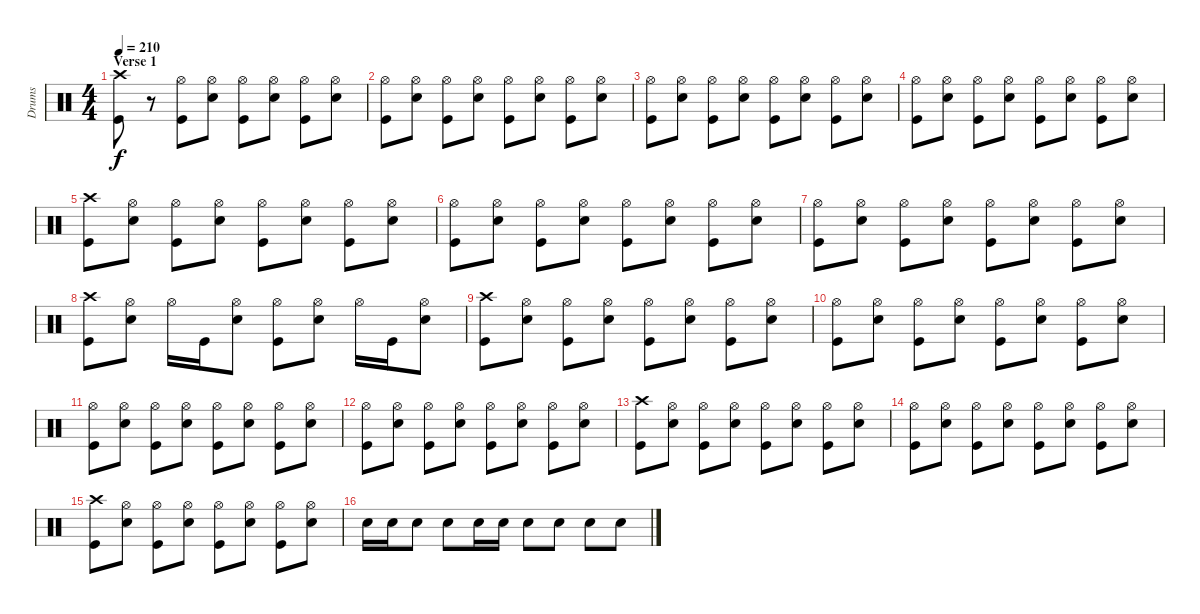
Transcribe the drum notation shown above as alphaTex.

\track ("Drums" "Drums") {instrument percussion}
\staff {score}
\articulation defaults
\ts (4 4)
\section ("" "Verse 1")
\tempo 210
\clef neutral
\ks c
("Crash high (hit)" "Kick (hit)").8{dy f} r.8 ("Hi-Hat (open)" "Kick (hit)").8 ("Hi-Hat (open)" "Snare (hit) 2").8 ("Hi-Hat (open)" "Kick (hit)").8 ("Hi-Hat (open)" "Snare (hit) 2").8 ("Hi-Hat (open)" "Kick (hit)").8 ("Hi-Hat (open)" "Snare (hit) 2").8 |
("Hi-Hat (open)" "Kick (hit)").8 ("Hi-Hat (open)" "Snare (hit) 2").8 ("Hi-Hat (open)" "Kick (hit)").8 ("Hi-Hat (open)" "Snare (hit) 2").8 ("Hi-Hat (open)" "Kick (hit)").8 ("Hi-Hat (open)" "Snare (hit) 2").8 ("Hi-Hat (open)" "Kick (hit)").8 ("Hi-Hat (open)" "Snare (hit) 2").8 |
("Hi-Hat (open)" "Kick (hit)").8 ("Hi-Hat (open)" "Snare (hit) 2").8 ("Hi-Hat (open)" "Kick (hit)").8 ("Hi-Hat (open)" "Snare (hit) 2").8 ("Hi-Hat (open)" "Kick (hit)").8 ("Hi-Hat (open)" "Snare (hit) 2").8 ("Hi-Hat (open)" "Kick (hit)").8 ("Hi-Hat (open)" "Snare (hit) 2").8 |
("Hi-Hat (open)" "Kick (hit)").8 ("Hi-Hat (open)" "Snare (hit) 2").8 ("Hi-Hat (open)" "Kick (hit)").8 ("Hi-Hat (open)" "Snare (hit) 2").8 ("Hi-Hat (open)" "Kick (hit)").8 ("Hi-Hat (open)" "Snare (hit) 2").8 ("Hi-Hat (open)" "Kick (hit)").8 ("Hi-Hat (open)" "Snare (hit) 2").8 |
("Crash high (hit)" "Kick (hit)").8 ("Hi-Hat (open)" "Snare (hit) 2").8 ("Hi-Hat (open)" "Kick (hit)").8 ("Hi-Hat (open)" "Snare (hit) 2").8 ("Hi-Hat (open)" "Kick (hit)").8 ("Hi-Hat (open)" "Snare (hit) 2").8 ("Hi-Hat (open)" "Kick (hit)").8 ("Hi-Hat (open)" "Snare (hit) 2").8 |
("Hi-Hat (open)" "Kick (hit)").8 ("Hi-Hat (open)" "Snare (hit) 2").8 ("Hi-Hat (open)" "Kick (hit)").8 ("Hi-Hat (open)" "Snare (hit) 2").8 ("Hi-Hat (open)" "Kick (hit)").8 ("Hi-Hat (open)" "Snare (hit) 2").8 ("Hi-Hat (open)" "Kick (hit)").8 ("Hi-Hat (open)" "Snare (hit) 2").8 |
("Hi-Hat (open)" "Kick (hit)").8 ("Hi-Hat (open)" "Snare (hit) 2").8 ("Hi-Hat (open)" "Kick (hit)").8 ("Hi-Hat (open)" "Snare (hit) 2").8 ("Hi-Hat (open)" "Kick (hit)").8 ("Hi-Hat (open)" "Snare (hit) 2").8 ("Hi-Hat (open)" "Kick (hit)").8 ("Hi-Hat (open)" "Snare (hit) 2").8 |
("Crash high (hit)" "Kick (hit)").8 ("Hi-Hat (open)" "Snare (hit) 2").8 "Hi-Hat (open)".16 "Kick (hit)".16 ("Hi-Hat (open)" "Snare (hit) 2").8 ("Hi-Hat (open)" "Kick (hit)").8 ("Hi-Hat (open)" "Snare (hit) 2").8 "Hi-Hat (open)".16 "Kick (hit)".16 ("Hi-Hat (open)" "Snare (hit) 2").8 |
("Crash high (hit)" "Kick (hit)").8 ("Hi-Hat (open)" "Snare (hit) 2").8 ("Hi-Hat (open)" "Kick (hit)").8 ("Hi-Hat (open)" "Snare (hit) 2").8 ("Hi-Hat (open)" "Kick (hit)").8 ("Hi-Hat (open)" "Snare (hit) 2").8 ("Hi-Hat (open)" "Kick (hit)").8 ("Hi-Hat (open)" "Snare (hit) 2").8 |
("Hi-Hat (open)" "Kick (hit)").8 ("Hi-Hat (open)" "Snare (hit) 2").8 ("Hi-Hat (open)" "Kick (hit)").8 ("Hi-Hat (open)" "Snare (hit) 2").8 ("Hi-Hat (open)" "Kick (hit)").8 ("Hi-Hat (open)" "Snare (hit) 2").8 ("Hi-Hat (open)" "Kick (hit)").8 ("Hi-Hat (open)" "Snare (hit) 2").8 |
("Hi-Hat (open)" "Kick (hit)").8 ("Hi-Hat (open)" "Snare (hit) 2").8 ("Hi-Hat (open)" "Kick (hit)").8 ("Hi-Hat (open)" "Snare (hit) 2").8 ("Hi-Hat (open)" "Kick (hit)").8 ("Hi-Hat (open)" "Snare (hit) 2").8 ("Hi-Hat (open)" "Kick (hit)").8 ("Hi-Hat (open)" "Snare (hit) 2").8 |
("Hi-Hat (open)" "Kick (hit)").8 ("Hi-Hat (open)" "Snare (hit) 2").8 ("Hi-Hat (open)" "Kick (hit)").8 ("Hi-Hat (open)" "Snare (hit) 2").8 ("Hi-Hat (open)" "Kick (hit)").8 ("Hi-Hat (open)" "Snare (hit) 2").8 ("Hi-Hat (open)" "Kick (hit)").8 ("Hi-Hat (open)" "Snare (hit) 2").8 |
("Crash high (hit)" "Kick (hit)").8 ("Hi-Hat (open)" "Snare (hit) 2").8 ("Hi-Hat (open)" "Kick (hit)").8 ("Hi-Hat (open)" "Snare (hit) 2").8 ("Hi-Hat (open)" "Kick (hit)").8 ("Hi-Hat (open)" "Snare (hit) 2").8 ("Hi-Hat (open)" "Kick (hit)").8 ("Hi-Hat (open)" "Snare (hit) 2").8 |
("Hi-Hat (open)" "Kick (hit)").8 ("Hi-Hat (open)" "Snare (hit) 2").8 ("Hi-Hat (open)" "Kick (hit)").8 ("Hi-Hat (open)" "Snare (hit) 2").8 ("Hi-Hat (open)" "Kick (hit)").8 ("Hi-Hat (open)" "Snare (hit) 2").8 ("Hi-Hat (open)" "Kick (hit)").8 ("Hi-Hat (open)" "Snare (hit) 2").8 |
("Crash high (hit)" "Kick (hit)").8 ("Hi-Hat (open)" "Snare (hit) 2").8 ("Hi-Hat (open)" "Kick (hit)").8 ("Hi-Hat (open)" "Snare (hit) 2").8 ("Hi-Hat (open)" "Kick (hit)").8 ("Hi-Hat (open)" "Snare (hit) 2").8 ("Hi-Hat (open)" "Kick (hit)").8 ("Hi-Hat (open)" "Snare (hit) 2").8 |
"Snare (hit) 2".16 "Snare (hit) 2".16 "Snare (hit) 2".8 "Snare (hit) 2".8 "Snare (hit) 2".16 "Snare (hit) 2".16 "Snare (hit) 2".8 "Snare (hit) 2".8 "Snare (hit) 2".8 "Snare (hit) 2".8
